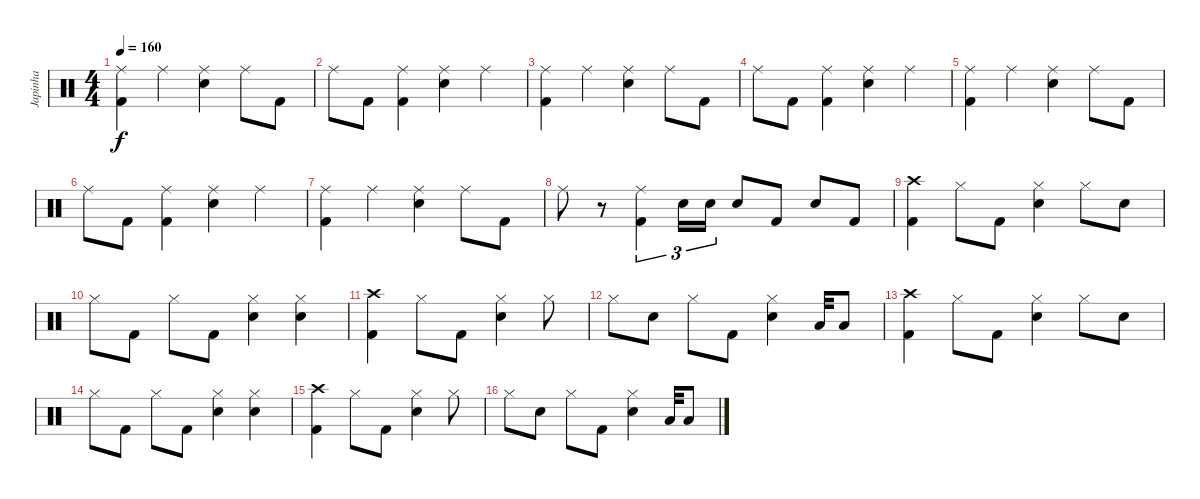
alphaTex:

\track ("Japinha" "Japinha") {instrument percussion}
\staff {score}
\articulation defaults
\ts (4 4)
\tempo 160
\clef neutral
\ks c
("Ride (middle)" "Kick (hit) 2").4{dy f} "Ride (middle)".4 ("Ride (middle)" "Snare (hit) 2").4 "Ride (middle)".8 "Kick (hit) 2".8 |
"Ride (middle)".8 "Kick (hit) 2".8 ("Ride (middle)" "Kick (hit) 2").4 ("Ride (middle)" "Snare (hit) 2").4 "Ride (middle)".4 |
("Ride (middle)" "Kick (hit) 2").4 "Ride (middle)".4 ("Ride (middle)" "Snare (hit) 2").4 "Ride (middle)".8 "Kick (hit) 2".8 |
"Ride (middle)".8 "Kick (hit) 2".8 ("Ride (middle)" "Kick (hit) 2").4 ("Ride (middle)" "Snare (hit) 2").4 "Ride (middle)".4 |
("Ride (middle)" "Kick (hit) 2").4 "Ride (middle)".4 ("Ride (middle)" "Snare (hit) 2").4 "Ride (middle)".8 "Kick (hit) 2".8 |
"Ride (middle)".8 "Kick (hit) 2".8 ("Ride (middle)" "Kick (hit) 2").4 ("Ride (middle)" "Snare (hit) 2").4 "Ride (middle)".4 |
("Ride (middle)" "Kick (hit) 2").4 "Ride (middle)".4 ("Ride (middle)" "Snare (hit) 2").4 "Ride (middle)".8 "Kick (hit) 2".8 |
"Ride (middle)".8 r.8 ("Ride (middle)" "Kick (hit) 2").4{tu (3 2)} "Snare (hit) 2".16{tu (3 2)} "Snare (hit) 2".16{tu (3 2)} "Snare (hit) 2".8 "Kick (hit) 2".8 "Snare (hit) 2".8 "Kick (hit) 2".8 |
("Crash high (hit)" "Kick (hit) 2").4 "Hi-Hat (closed)".8 "Kick (hit) 2".8 ("Hi-Hat (closed)" "Snare (hit) 2").4 "Hi-Hat (closed)".8 "Snare (hit) 2".8 |
"Hi-Hat (closed)".8 "Kick (hit) 2".8 "Hi-Hat (closed)".8 "Kick (hit) 2".8 ("Hi-Hat (closed)" "Snare (hit) 2").4 ("Hi-Hat (closed)" "Snare (hit) 2").4 |
("Crash high (hit)" "Kick (hit) 2").4 "Hi-Hat (closed)".8 "Kick (hit) 2".8 ("Hi-Hat (closed)" "Snare (hit) 2").4 "Hi-Hat (closed)".8 |
"Hi-Hat (closed)".8 "Snare (hit) 2".8 "Hi-Hat (closed)".8 "Kick (hit) 2".8 ("Hi-Hat (closed)" "Snare (hit) 2").4 "Low Tom (hit)".32 "Low Tom (hit)".8 |
("Crash high (hit)" "Kick (hit) 2").4 "Hi-Hat (closed)".8 "Kick (hit) 2".8 ("Hi-Hat (closed)" "Snare (hit) 2").4 "Hi-Hat (closed)".8 "Snare (hit) 2".8 |
"Hi-Hat (closed)".8 "Kick (hit) 2".8 "Hi-Hat (closed)".8 "Kick (hit) 2".8 ("Hi-Hat (closed)" "Snare (hit) 2").4 ("Hi-Hat (closed)" "Snare (hit) 2").4 |
("Crash high (hit)" "Kick (hit) 2").4 "Hi-Hat (closed)".8 "Kick (hit) 2".8 ("Hi-Hat (closed)" "Snare (hit) 2").4 "Hi-Hat (closed)".8 |
"Hi-Hat (closed)".8 "Snare (hit) 2".8 "Hi-Hat (closed)".8 "Kick (hit) 2".8 ("Hi-Hat (closed)" "Snare (hit) 2").4 "Low Tom (hit)".32 "Low Tom (hit)".8
